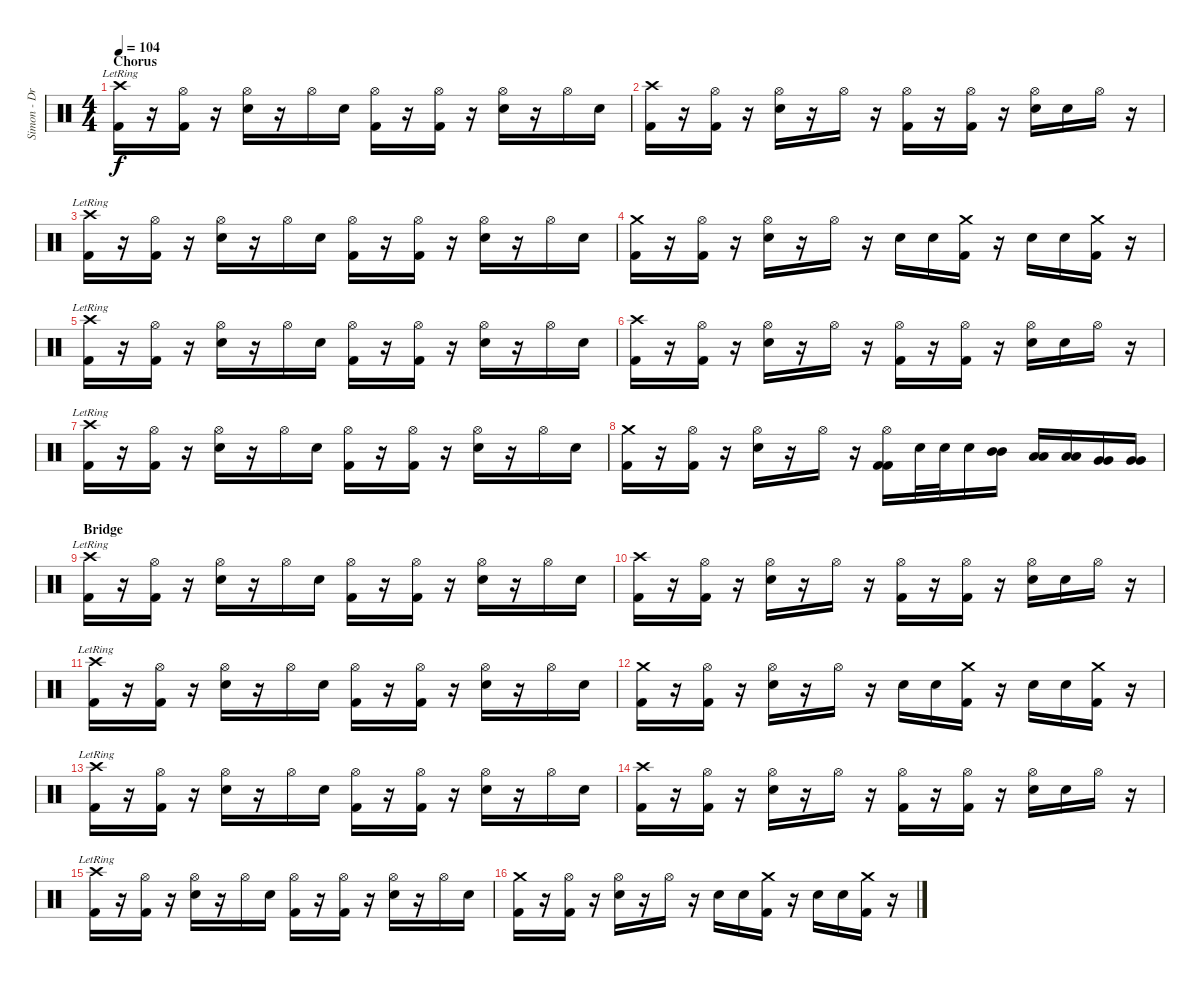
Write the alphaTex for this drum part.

\track ("Simon - Drums" "Simon - Dr") {instrument percussion}
\staff {score}
\articulation defaults
\ts (4 4)
\section ("" "Chorus")
\tempo 104
\clef neutral
\ks c
("Crash high (hit)"{lr} "Kick (hit) 2").16{dy f} r.16 ("Hi-Hat (open)" "Kick (hit) 2").16 r.16 ("Hi-Hat (open)" "Electric Snare (hit)").16 r.16 "Hi-Hat (open)".16 "Electric Snare (hit)".16 ("Hi-Hat (open)" "Kick (hit) 2").16 r.16 ("Hi-Hat (open)" "Kick (hit) 2").16 r.16 ("Hi-Hat (open)" "Electric Snare (hit)").16 r.16 "Hi-Hat (open)".16 "Electric Snare (hit)".16 |
("Crash high (hit)" "Kick (hit) 2").16 r.16 ("Hi-Hat (open)" "Kick (hit) 2").16 r.16 ("Hi-Hat (open)" "Electric Snare (hit)").16 r.16 "Hi-Hat (open)".16 r.16 ("Hi-Hat (open)" "Kick (hit) 2").16 r.16 ("Hi-Hat (open)" "Kick (hit) 2").16 r.16 ("Hi-Hat (open)" "Electric Snare (hit)").16 "Electric Snare (hit)".16 "Hi-Hat (open)".16 r.16 |
("Crash high (hit)"{lr} "Kick (hit) 2").16 r.16 ("Hi-Hat (open)" "Kick (hit) 2").16 r.16 ("Hi-Hat (open)" "Electric Snare (hit)").16 r.16 "Hi-Hat (open)".16 "Electric Snare (hit)".16 ("Hi-Hat (open)" "Kick (hit) 2").16 r.16 ("Hi-Hat (open)" "Kick (hit) 2").16 r.16 ("Hi-Hat (open)" "Electric Snare (hit)").16 r.16 "Hi-Hat (open)".16 "Electric Snare (hit)".16 |
("Crash medium (hit)" "Kick (hit) 2").16 r.16 ("Hi-Hat (open)" "Kick (hit) 2").16 r.16 ("Hi-Hat (open)" "Electric Snare (hit)").16 r.16 "Hi-Hat (open)".16 r.16 "Electric Snare (hit)".16 "Electric Snare (hit)".16 ("Crash medium (hit)" "Kick (hit) 2").16 r.16 "Electric Snare (hit)".16 "Electric Snare (hit)".16 ("Crash medium (hit)" "Kick (hit) 2").16 r.16 |
("Crash high (hit)"{lr} "Kick (hit) 2").16 r.16 ("Hi-Hat (open)" "Kick (hit) 2").16 r.16 ("Hi-Hat (open)" "Electric Snare (hit)").16 r.16 "Hi-Hat (open)".16 "Electric Snare (hit)".16 ("Hi-Hat (open)" "Kick (hit) 2").16 r.16 ("Hi-Hat (open)" "Kick (hit) 2").16 r.16 ("Hi-Hat (open)" "Electric Snare (hit)").16 r.16 "Hi-Hat (open)".16 "Electric Snare (hit)".16 |
("Crash high (hit)" "Kick (hit) 2").16 r.16 ("Hi-Hat (open)" "Kick (hit) 2").16 r.16 ("Hi-Hat (open)" "Electric Snare (hit)").16 r.16 "Hi-Hat (open)".16 r.16 ("Hi-Hat (open)" "Kick (hit) 2").16 r.16 ("Hi-Hat (open)" "Kick (hit) 2").16 r.16 ("Hi-Hat (open)" "Electric Snare (hit)").16 "Electric Snare (hit)".16 "Hi-Hat (open)".16 r.16 |
("Crash high (hit)"{lr} "Kick (hit) 2").16 r.16 ("Hi-Hat (open)" "Kick (hit) 2").16 r.16 ("Hi-Hat (open)" "Electric Snare (hit)").16 r.16 "Hi-Hat (open)".16 "Electric Snare (hit)".16 ("Hi-Hat (open)" "Kick (hit) 2").16 r.16 ("Hi-Hat (open)" "Kick (hit) 2").16 r.16 ("Hi-Hat (open)" "Electric Snare (hit)").16 r.16 "Hi-Hat (open)".16 "Electric Snare (hit)".16 |
("Crash medium (hit)" "Kick (hit) 2").16 r.16 ("Hi-Hat (open)" "Kick (hit) 2").16 r.16 ("Hi-Hat (open)" "Electric Snare (hit)").16 r.16 "Hi-Hat (open)".16 r.16 ("Hi-Hat (open)" "Kick (hit) 2" "Kick (hit) 2").16 "Electric Snare (hit)".32 "Electric Snare (hit)".32 "Electric Snare (hit)".16 ("Mid Tom (hit)" "Mid Tom (hit)").16 ("Low Tom (hit)" "Low Tom (hit)").16 ("Low Tom (hit)" "Low Tom (hit)").16 ("Very Low Tom (hit)" "Very Low Tom (hit)").16 ("Very Low Tom (hit)" "Very Low Tom (hit)").16 |
\section ("" "Bridge")
("Crash high (hit)"{lr} "Kick (hit) 2").16 r.16 ("Hi-Hat (open)" "Kick (hit) 2").16 r.16 ("Hi-Hat (open)" "Electric Snare (hit)").16 r.16 "Hi-Hat (open)".16 "Electric Snare (hit)".16 ("Hi-Hat (open)" "Kick (hit) 2").16 r.16 ("Hi-Hat (open)" "Kick (hit) 2").16 r.16 ("Hi-Hat (open)" "Electric Snare (hit)").16 r.16 "Hi-Hat (open)".16 "Electric Snare (hit)".16 |
("Crash high (hit)" "Kick (hit) 2").16 r.16 ("Hi-Hat (open)" "Kick (hit) 2").16 r.16 ("Hi-Hat (open)" "Electric Snare (hit)").16 r.16 "Hi-Hat (open)".16 r.16 ("Hi-Hat (open)" "Kick (hit) 2").16 r.16 ("Hi-Hat (open)" "Kick (hit) 2").16 r.16 ("Hi-Hat (open)" "Electric Snare (hit)").16 "Electric Snare (hit)".16 "Hi-Hat (open)".16 r.16 |
("Crash high (hit)"{lr} "Kick (hit) 2").16 r.16 ("Hi-Hat (open)" "Kick (hit) 2").16 r.16 ("Hi-Hat (open)" "Electric Snare (hit)").16 r.16 "Hi-Hat (open)".16 "Electric Snare (hit)".16 ("Hi-Hat (open)" "Kick (hit) 2").16 r.16 ("Hi-Hat (open)" "Kick (hit) 2").16 r.16 ("Hi-Hat (open)" "Electric Snare (hit)").16 r.16 "Hi-Hat (open)".16 "Electric Snare (hit)".16 |
("Crash medium (hit)" "Kick (hit) 2").16 r.16 ("Hi-Hat (open)" "Kick (hit) 2").16 r.16 ("Hi-Hat (open)" "Electric Snare (hit)").16 r.16 "Hi-Hat (open)".16 r.16 "Electric Snare (hit)".16 "Electric Snare (hit)".16 ("Crash medium (hit)" "Kick (hit) 2").16 r.16 "Electric Snare (hit)".16 "Electric Snare (hit)".16 ("Crash medium (hit)" "Kick (hit) 2").16 r.16 |
("Crash high (hit)"{lr} "Kick (hit) 2").16 r.16 ("Hi-Hat (open)" "Kick (hit) 2").16 r.16 ("Hi-Hat (open)" "Electric Snare (hit)").16 r.16 "Hi-Hat (open)".16 "Electric Snare (hit)".16 ("Hi-Hat (open)" "Kick (hit) 2").16 r.16 ("Hi-Hat (open)" "Kick (hit) 2").16 r.16 ("Hi-Hat (open)" "Electric Snare (hit)").16 r.16 "Hi-Hat (open)".16 "Electric Snare (hit)".16 |
("Crash high (hit)" "Kick (hit) 2").16 r.16 ("Hi-Hat (open)" "Kick (hit) 2").16 r.16 ("Hi-Hat (open)" "Electric Snare (hit)").16 r.16 "Hi-Hat (open)".16 r.16 ("Hi-Hat (open)" "Kick (hit) 2").16 r.16 ("Hi-Hat (open)" "Kick (hit) 2").16 r.16 ("Hi-Hat (open)" "Electric Snare (hit)").16 "Electric Snare (hit)".16 "Hi-Hat (open)".16 r.16 |
("Crash high (hit)"{lr} "Kick (hit) 2").16 r.16 ("Hi-Hat (open)" "Kick (hit) 2").16 r.16 ("Hi-Hat (open)" "Electric Snare (hit)").16 r.16 "Hi-Hat (open)".16 "Electric Snare (hit)".16 ("Hi-Hat (open)" "Kick (hit) 2").16 r.16 ("Hi-Hat (open)" "Kick (hit) 2").16 r.16 ("Hi-Hat (open)" "Electric Snare (hit)").16 r.16 "Hi-Hat (open)".16 "Electric Snare (hit)".16 |
("Crash medium (hit)" "Kick (hit) 2").16 r.16 ("Hi-Hat (open)" "Kick (hit) 2").16 r.16 ("Hi-Hat (open)" "Electric Snare (hit)").16 r.16 "Hi-Hat (open)".16 r.16 "Electric Snare (hit)".16 "Electric Snare (hit)".16 ("Crash medium (hit)" "Kick (hit) 2").16 r.16 "Electric Snare (hit)".16 "Electric Snare (hit)".16 ("Crash medium (hit)" "Kick (hit) 2").16 r.16
